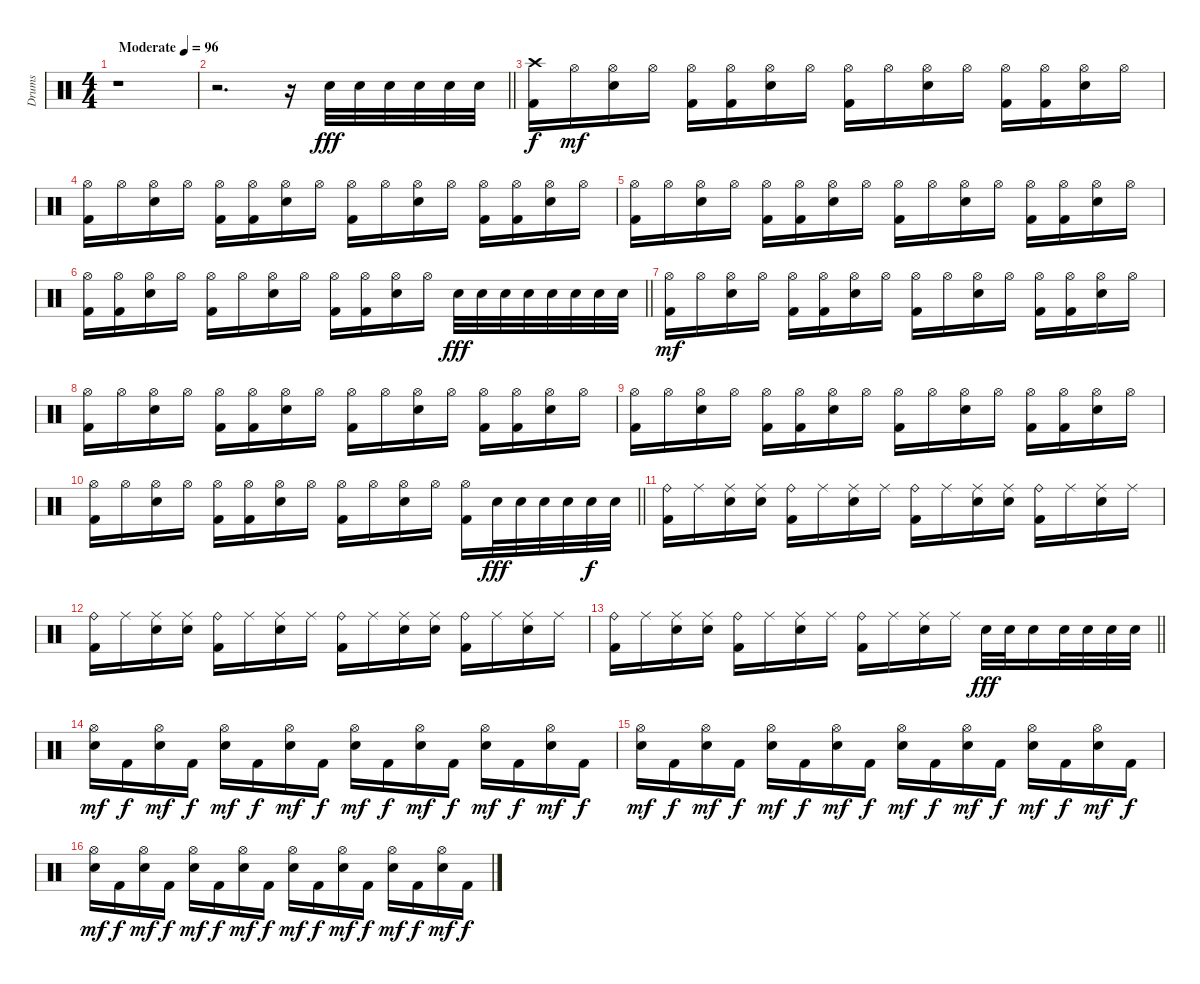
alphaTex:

\track ("Drums" "Drums") {instrument percussion}
\staff {score}
\articulation defaults
\ts (4 4)
\tempo (96 "Moderate")
\clef neutral
\ks c
r.1{dy fff} |
\barLineRight lightlight
r.2{d} r.16 "Electric Snare (hit)".32 "Electric Snare (hit)".32 "Electric Snare (hit)".32 "Electric Snare (hit)".32 "Electric Snare (hit)".32 "Electric Snare (hit)".32 |
("Crash high (hit)" "Kick (hit) 2").16{dy f} "Hi-Hat (open)".16{dy mf} ("Hi-Hat (open)" "Electric Snare (hit)").16 "Hi-Hat (open)".16 ("Hi-Hat (open)" "Kick (hit) 2").16 ("Hi-Hat (open)" "Kick (hit) 2").16 ("Hi-Hat (open)" "Electric Snare (hit)").16 "Hi-Hat (open)".16 ("Hi-Hat (open)" "Kick (hit) 2").16 "Hi-Hat (open)".16 ("Hi-Hat (open)" "Electric Snare (hit)").16 "Hi-Hat (open)".16 ("Hi-Hat (open)" "Kick (hit) 2").16 ("Hi-Hat (open)" "Kick (hit) 2").16 ("Hi-Hat (open)" "Electric Snare (hit)").16 "Hi-Hat (open)".16 |
("Hi-Hat (open)" "Kick (hit) 2").16 "Hi-Hat (open)".16 ("Hi-Hat (open)" "Electric Snare (hit)").16 "Hi-Hat (open)".16 ("Hi-Hat (open)" "Kick (hit) 2").16 ("Hi-Hat (open)" "Kick (hit) 2").16 ("Hi-Hat (open)" "Electric Snare (hit)").16 "Hi-Hat (open)".16 ("Hi-Hat (open)" "Kick (hit) 2").16 "Hi-Hat (open)".16 ("Hi-Hat (open)" "Electric Snare (hit)").16 "Hi-Hat (open)".16 ("Hi-Hat (open)" "Kick (hit) 2").16 ("Hi-Hat (open)" "Kick (hit) 2").16 ("Hi-Hat (open)" "Electric Snare (hit)").16 "Hi-Hat (open)".16 |
("Hi-Hat (open)" "Kick (hit) 2").16 "Hi-Hat (open)".16 ("Hi-Hat (open)" "Electric Snare (hit)").16 "Hi-Hat (open)".16 ("Hi-Hat (open)" "Kick (hit) 2").16 ("Hi-Hat (open)" "Kick (hit) 2").16 ("Hi-Hat (open)" "Electric Snare (hit)").16 "Hi-Hat (open)".16 ("Hi-Hat (open)" "Kick (hit) 2").16 "Hi-Hat (open)".16 ("Hi-Hat (open)" "Electric Snare (hit)").16 "Hi-Hat (open)".16 ("Hi-Hat (open)" "Kick (hit) 2").16 ("Hi-Hat (open)" "Kick (hit) 2").16 ("Hi-Hat (open)" "Electric Snare (hit)").16 "Hi-Hat (open)".16 |
\barLineRight lightlight
("Hi-Hat (open)" "Kick (hit) 2").16 ("Hi-Hat (open)" "Kick (hit) 2").16 ("Hi-Hat (open)" "Electric Snare (hit)").16 "Hi-Hat (open)".16 ("Hi-Hat (open)" "Kick (hit) 2").16 "Hi-Hat (open)".16 ("Hi-Hat (open)" "Electric Snare (hit)").16 "Hi-Hat (open)".16 ("Hi-Hat (open)" "Kick (hit) 2").16 ("Hi-Hat (open)" "Kick (hit) 2").16 ("Hi-Hat (open)" "Electric Snare (hit)").16 "Hi-Hat (open)".16 "Electric Snare (hit)".32{dy fff} "Electric Snare (hit)".32 "Electric Snare (hit)".32 "Electric Snare (hit)".32 "Electric Snare (hit)".32 "Electric Snare (hit)".32 "Electric Snare (hit)".32 "Electric Snare (hit)".32 |
("Hi-Hat (open)" "Kick (hit) 2").16{dy mf} "Hi-Hat (open)".16 ("Hi-Hat (open)" "Electric Snare (hit)").16 "Hi-Hat (open)".16 ("Hi-Hat (open)" "Kick (hit) 2").16 ("Hi-Hat (open)" "Kick (hit) 2").16 ("Hi-Hat (open)" "Electric Snare (hit)").16 "Hi-Hat (open)".16 ("Hi-Hat (open)" "Kick (hit) 2").16 "Hi-Hat (open)".16 ("Hi-Hat (open)" "Electric Snare (hit)").16 "Hi-Hat (open)".16 ("Hi-Hat (open)" "Kick (hit) 2").16 ("Hi-Hat (open)" "Kick (hit) 2").16 ("Hi-Hat (open)" "Electric Snare (hit)").16 "Hi-Hat (open)".16 |
("Hi-Hat (open)" "Kick (hit) 2").16 "Hi-Hat (open)".16 ("Hi-Hat (open)" "Electric Snare (hit)").16 "Hi-Hat (open)".16 ("Hi-Hat (open)" "Kick (hit) 2").16 ("Hi-Hat (open)" "Kick (hit) 2").16 ("Hi-Hat (open)" "Electric Snare (hit)").16 "Hi-Hat (open)".16 ("Hi-Hat (open)" "Kick (hit) 2").16 "Hi-Hat (open)".16 ("Hi-Hat (open)" "Electric Snare (hit)").16 "Hi-Hat (open)".16 ("Hi-Hat (open)" "Kick (hit) 2").16 ("Hi-Hat (open)" "Kick (hit) 2").16 ("Hi-Hat (open)" "Electric Snare (hit)").16 "Hi-Hat (open)".16 |
("Hi-Hat (open)" "Kick (hit) 2").16 "Hi-Hat (open)".16 ("Hi-Hat (open)" "Electric Snare (hit)").16 "Hi-Hat (open)".16 ("Hi-Hat (open)" "Kick (hit) 2").16 ("Hi-Hat (open)" "Kick (hit) 2").16 ("Hi-Hat (open)" "Electric Snare (hit)").16 "Hi-Hat (open)".16 ("Hi-Hat (open)" "Kick (hit) 2").16 "Hi-Hat (open)".16 ("Hi-Hat (open)" "Electric Snare (hit)").16 "Hi-Hat (open)".16 ("Hi-Hat (open)" "Kick (hit) 2").16 ("Hi-Hat (open)" "Kick (hit) 2").16 ("Hi-Hat (open)" "Electric Snare (hit)").16 "Hi-Hat (open)".16 |
\barLineRight lightlight
("Hi-Hat (open)" "Kick (hit) 2").16 "Hi-Hat (open)".16 ("Hi-Hat (open)" "Electric Snare (hit)").16 "Hi-Hat (open)".16 ("Hi-Hat (open)" "Kick (hit) 2").16 ("Hi-Hat (open)" "Kick (hit) 2").16 ("Hi-Hat (open)" "Electric Snare (hit)").16 "Hi-Hat (open)".16 ("Hi-Hat (open)" "Kick (hit) 2").16 "Hi-Hat (open)".16 ("Hi-Hat (open)" "Electric Snare (hit)").16 "Hi-Hat (open)".16 ("Hi-Hat (open)" "Kick (hit) 2").16 "Electric Snare (hit)".32{dy fff} "Electric Snare (hit)".32 "Electric Snare (hit)".32 "Electric Snare (hit)".32 "Electric Snare (hit)".32{dy f} "Electric Snare (hit)".32 |
("Ride (bell)" "Kick (hit) 2").16 "Ride (middle)".16 ("Ride (middle)" "Electric Snare (hit)").16 ("Ride (middle)" "Electric Snare (hit)").16 ("Ride (bell)" "Kick (hit) 2").16 "Ride (middle)".16 ("Ride (middle)" "Electric Snare (hit)").16 "Ride (middle)".16 ("Ride (bell)" "Kick (hit) 2").16 "Ride (middle)".16 ("Ride (middle)" "Electric Snare (hit)").16 ("Ride (middle)" "Electric Snare (hit)").16 ("Ride (bell)" "Kick (hit) 2").16 "Ride (middle)".16 ("Ride (middle)" "Electric Snare (hit)").16 "Ride (middle)".16 |
("Ride (bell)" "Kick (hit) 2").16 "Ride (middle)".16 ("Ride (middle)" "Electric Snare (hit)").16 ("Ride (middle)" "Electric Snare (hit)").16 ("Ride (bell)" "Kick (hit) 2").16 "Ride (middle)".16 ("Ride (middle)" "Electric Snare (hit)").16 "Ride (middle)".16 ("Ride (bell)" "Kick (hit) 2").16 "Ride (middle)".16 ("Ride (middle)" "Electric Snare (hit)").16 ("Ride (middle)" "Electric Snare (hit)").16 ("Ride (bell)" "Kick (hit) 2").16 "Ride (middle)".16 ("Ride (middle)" "Electric Snare (hit)").16 "Ride (middle)".16 |
\barLineRight lightlight
("Ride (bell)" "Kick (hit) 2").16 "Ride (middle)".16 ("Ride (middle)" "Electric Snare (hit)").16 ("Ride (middle)" "Electric Snare (hit)").16 ("Ride (bell)" "Kick (hit) 2").16 "Ride (middle)".16 ("Ride (middle)" "Electric Snare (hit)").16 "Ride (middle)".16 ("Ride (bell)" "Kick (hit) 2").16 "Ride (middle)".16 ("Ride (middle)" "Electric Snare (hit)").16 "Ride (middle)".16 "Electric Snare (hit)".32{dy fff} "Electric Snare (hit)".32 "Electric Snare (hit)".16 "Electric Snare (hit)".32 "Electric Snare (hit)".32 "Electric Snare (hit)".32 "Electric Snare (hit)".32 |
("Hi-Hat (open)" "Electric Snare (hit)").16{dy mf} "Kick (hit) 2".16{dy f} ("Hi-Hat (open)" "Electric Snare (hit)").16{dy mf} "Kick (hit) 2".16{dy f} ("Hi-Hat (open)" "Electric Snare (hit)").16{dy mf} "Kick (hit) 2".16{dy f} ("Hi-Hat (open)" "Electric Snare (hit)").16{dy mf} "Kick (hit) 2".16{dy f} ("Hi-Hat (open)" "Electric Snare (hit)").16{dy mf} "Kick (hit) 2".16{dy f} ("Hi-Hat (open)" "Electric Snare (hit)").16{dy mf} "Kick (hit) 2".16{dy f} ("Hi-Hat (open)" "Electric Snare (hit)").16{dy mf} "Kick (hit) 2".16{dy f} ("Hi-Hat (open)" "Electric Snare (hit)").16{dy mf} "Kick (hit) 2".16{dy f} |
("Hi-Hat (open)" "Electric Snare (hit)").16{dy mf} "Kick (hit) 2".16{dy f} ("Hi-Hat (open)" "Electric Snare (hit)").16{dy mf} "Kick (hit) 2".16{dy f} ("Hi-Hat (open)" "Electric Snare (hit)").16{dy mf} "Kick (hit) 2".16{dy f} ("Hi-Hat (open)" "Electric Snare (hit)").16{dy mf} "Kick (hit) 2".16{dy f} ("Hi-Hat (open)" "Electric Snare (hit)").16{dy mf} "Kick (hit) 2".16{dy f} ("Hi-Hat (open)" "Electric Snare (hit)").16{dy mf} "Kick (hit) 2".16{dy f} ("Hi-Hat (open)" "Electric Snare (hit)").16{dy mf} "Kick (hit) 2".16{dy f} ("Hi-Hat (open)" "Electric Snare (hit)").16{dy mf} "Kick (hit) 2".16{dy f} |
("Hi-Hat (open)" "Electric Snare (hit)").16{dy mf} "Kick (hit) 2".16{dy f} ("Hi-Hat (open)" "Electric Snare (hit)").16{dy mf} "Kick (hit) 2".16{dy f} ("Hi-Hat (open)" "Electric Snare (hit)").16{dy mf} "Kick (hit) 2".16{dy f} ("Hi-Hat (open)" "Electric Snare (hit)").16{dy mf} "Kick (hit) 2".16{dy f} ("Hi-Hat (open)" "Electric Snare (hit)").16{dy mf} "Kick (hit) 2".16{dy f} ("Hi-Hat (open)" "Electric Snare (hit)").16{dy mf} "Kick (hit) 2".16{dy f} ("Hi-Hat (open)" "Electric Snare (hit)").16{dy mf} "Kick (hit) 2".16{dy f} ("Hi-Hat (open)" "Electric Snare (hit)").16{dy mf} "Kick (hit) 2".16{dy f}
